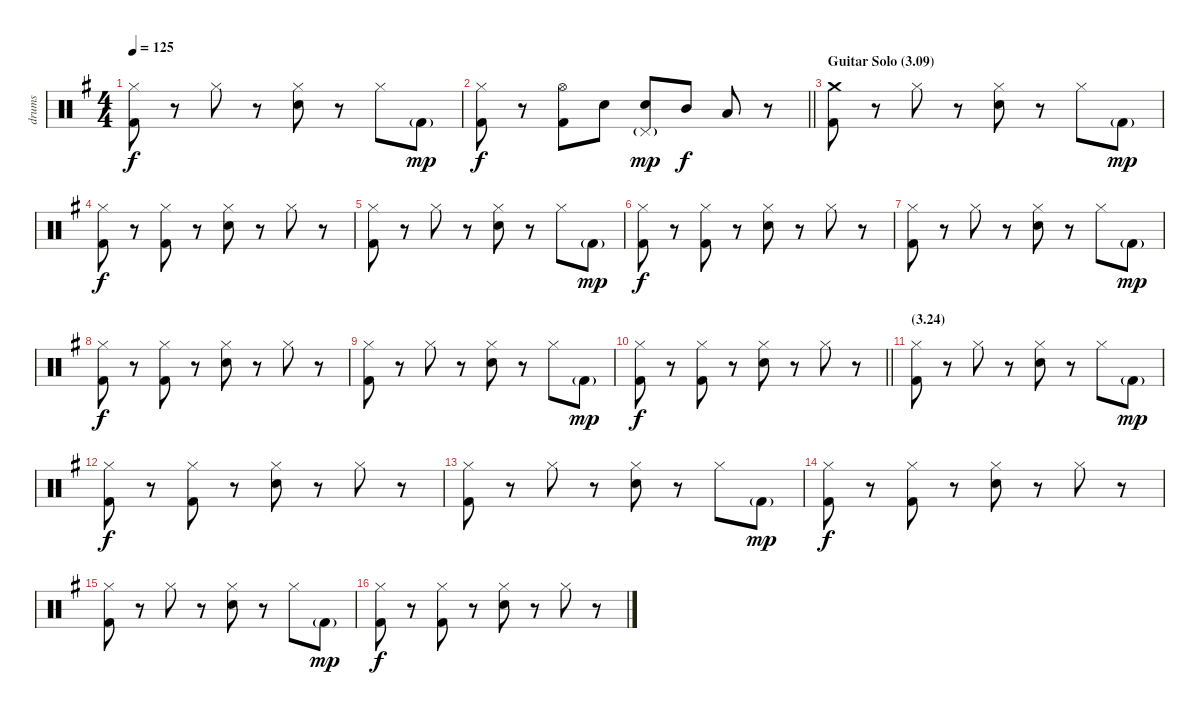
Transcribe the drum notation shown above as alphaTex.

\track ("drums" "drums") {instrument percussion}
\staff {score}
\articulation defaults
\ts (4 4)
\tempo 125
\clef neutral
\ks g
("Hi-Hat (closed)" "Kick (hit) 2").8{dy f} r.8 "Hi-Hat (closed)".8 r.8 ("Hi-Hat (closed)" "Electric Snare (hit)").8 r.8 "Hi-Hat (closed)".8 "Kick (hit) 2"{g}.8{dy mp} |
\barLineRight lightlight
("Hi-Hat (closed)" "Kick (hit) 2").8{dy f} r.8 ("Hi-Hat (open)" "Kick (hit) 2").8 "Electric Snare (hit)".8 ("Pedal Hi-Hat (hit)"{g} "Electric Snare (hit)").8{dy mp} "Mid Tom (hit)".8{dy f} "Low Tom (hit)".8 r.8 |
\section ("" "Guitar Solo (3.09)")
("Crash medium (hit)" "Kick (hit) 2").8 r.8 "Hi-Hat (closed)".8 r.8 ("Hi-Hat (closed)" "Electric Snare (hit)").8 r.8 "Hi-Hat (closed)".8 "Kick (hit) 2"{g}.8{dy mp} |
("Hi-Hat (closed)" "Kick (hit) 2").8{dy f} r.8 ("Hi-Hat (closed)" "Kick (hit) 2").8 r.8 ("Hi-Hat (closed)" "Electric Snare (hit)").8 r.8 "Hi-Hat (closed)".8 r.8 |
("Hi-Hat (closed)" "Kick (hit) 2").8 r.8 "Hi-Hat (closed)".8 r.8 ("Hi-Hat (closed)" "Electric Snare (hit)").8 r.8 "Hi-Hat (closed)".8 "Kick (hit) 2"{g}.8{dy mp} |
("Hi-Hat (closed)" "Kick (hit) 2").8{dy f} r.8 ("Hi-Hat (closed)" "Kick (hit) 2").8 r.8 ("Hi-Hat (closed)" "Electric Snare (hit)").8 r.8 "Hi-Hat (closed)".8 r.8 |
("Hi-Hat (closed)" "Kick (hit) 2").8 r.8 "Hi-Hat (closed)".8 r.8 ("Hi-Hat (closed)" "Electric Snare (hit)").8 r.8 "Hi-Hat (closed)".8 "Kick (hit) 2"{g}.8{dy mp} |
("Hi-Hat (closed)" "Kick (hit) 2").8{dy f} r.8 ("Hi-Hat (closed)" "Kick (hit) 2").8 r.8 ("Hi-Hat (closed)" "Electric Snare (hit)").8 r.8 "Hi-Hat (closed)".8 r.8 |
("Hi-Hat (closed)" "Kick (hit) 2").8 r.8 "Hi-Hat (closed)".8 r.8 ("Hi-Hat (closed)" "Electric Snare (hit)").8 r.8 "Hi-Hat (closed)".8 "Kick (hit) 2"{g}.8{dy mp} |
\barLineRight lightlight
("Hi-Hat (closed)" "Kick (hit) 2").8{dy f} r.8 ("Hi-Hat (closed)" "Kick (hit) 2").8 r.8 ("Hi-Hat (closed)" "Electric Snare (hit)").8 r.8 "Hi-Hat (closed)".8 r.8 |
\section ("" "(3.24)")
("Hi-Hat (closed)" "Kick (hit) 2").8 r.8 "Hi-Hat (closed)".8 r.8 ("Hi-Hat (closed)" "Electric Snare (hit)").8 r.8 "Hi-Hat (closed)".8 "Kick (hit) 2"{g}.8{dy mp} |
("Hi-Hat (closed)" "Kick (hit) 2").8{dy f} r.8 ("Hi-Hat (closed)" "Kick (hit) 2").8 r.8 ("Hi-Hat (closed)" "Electric Snare (hit)").8 r.8 "Hi-Hat (closed)".8 r.8 |
("Hi-Hat (closed)" "Kick (hit) 2").8 r.8 "Hi-Hat (closed)".8 r.8 ("Hi-Hat (closed)" "Electric Snare (hit)").8 r.8 "Hi-Hat (closed)".8 "Kick (hit) 2"{g}.8{dy mp} |
("Hi-Hat (closed)" "Kick (hit) 2").8{dy f} r.8 ("Hi-Hat (closed)" "Kick (hit) 2").8 r.8 ("Hi-Hat (closed)" "Electric Snare (hit)").8 r.8 "Hi-Hat (closed)".8 r.8 |
("Hi-Hat (closed)" "Kick (hit) 2").8 r.8 "Hi-Hat (closed)".8 r.8 ("Hi-Hat (closed)" "Electric Snare (hit)").8 r.8 "Hi-Hat (closed)".8 "Kick (hit) 2"{g}.8{dy mp} |
("Hi-Hat (closed)" "Kick (hit) 2").8{dy f} r.8 ("Hi-Hat (closed)" "Kick (hit) 2").8 r.8 ("Hi-Hat (closed)" "Electric Snare (hit)").8 r.8 "Hi-Hat (closed)".8 r.8
